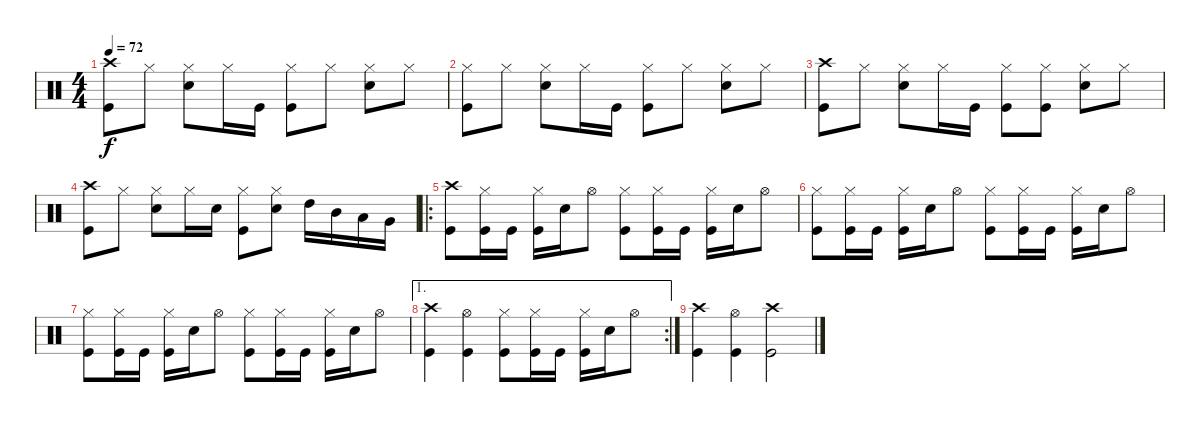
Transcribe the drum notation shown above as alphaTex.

\track "" {instrument percussion}
\staff {score}
\articulation defaults
\ts (4 4)
\tempo 72
\clef neutral
\ks c
("Kick (hit)" "Crash high (hit)").8{dy f} "Hi-Hat (closed)".8 ("Electric Snare (hit)" "Hi-Hat (closed)").8 "Hi-Hat (closed)".16 "Kick (hit)".16 ("Kick (hit)" "Hi-Hat (closed)").8 "Hi-Hat (closed)".8 ("Snare (hit) 2" "Hi-Hat (closed)").8 "Hi-Hat (closed)".8 |
("Kick (hit)" "Hi-Hat (closed)").8 "Hi-Hat (closed)".8 ("Electric Snare (hit)" "Hi-Hat (closed)").8 "Hi-Hat (closed)".16 "Kick (hit)".16 ("Kick (hit)" "Hi-Hat (closed)").8 "Hi-Hat (closed)".8 ("Snare (hit) 2" "Hi-Hat (closed)").8 "Hi-Hat (closed)".8 |
("Kick (hit)" "Crash high (hit)").8 "Hi-Hat (closed)".8 ("Electric Snare (hit)" "Hi-Hat (closed)").8 "Hi-Hat (closed)".16 "Kick (hit)".16 ("Kick (hit)" "Hi-Hat (closed)").8 ("Hi-Hat (closed)" "Kick (hit)").8 ("Snare (hit) 2" "Hi-Hat (closed)").8 "Hi-Hat (closed)".8 |
("Kick (hit)" "Crash high (hit)").8 "Hi-Hat (closed)".8 ("Electric Snare (hit)" "Hi-Hat (closed)").8 "Hi-Hat (closed)".16 "Snare (hit) 2".16 ("Kick (hit)" "Hi-Hat (closed)").8 ("Hi-Hat (closed)" "Snare (hit) 2").8 "High Tom (hit)".16 "Mid Tom (hit)".16 "Low Tom (hit)".16 "Very Low Tom (hit)".16 |
\ro
("Kick (hit)" "Crash high (hit)").8 ("Kick (hit)" "Hi-Hat (closed)").16 "Kick (hit)".16 ("Kick (hit)" "Hi-Hat (closed)").16 "Snare (hit) 2".16 "Hi-Hat (open)".8 ("Kick (hit)" "Hi-Hat (closed)").8 ("Kick (hit)" "Hi-Hat (closed)").16 "Kick (hit)".16 ("Kick (hit)" "Hi-Hat (closed)").16 "Snare (hit) 2".16 "Hi-Hat (open)".8 |
("Kick (hit)" "Hi-Hat (closed)").8 ("Kick (hit)" "Hi-Hat (closed)").16 "Kick (hit)".16 ("Kick (hit)" "Hi-Hat (closed)").16 "Snare (hit) 2".16 "Hi-Hat (open)".8 ("Kick (hit)" "Hi-Hat (closed)").8 ("Kick (hit)" "Hi-Hat (closed)").16 "Kick (hit)".16 ("Kick (hit)" "Hi-Hat (closed)").16 "Snare (hit) 2".16 "Hi-Hat (open)".8 |
("Kick (hit)" "Hi-Hat (closed)").8 ("Kick (hit)" "Hi-Hat (closed)").16{txt ""} "Kick (hit)".16 ("Kick (hit)" "Hi-Hat (closed)").16 "Snare (hit) 2".16 "Hi-Hat (open)".8 ("Kick (hit)" "Hi-Hat (closed)").8 ("Kick (hit)" "Hi-Hat (closed)").16 "Kick (hit)".16 ("Kick (hit)" "Hi-Hat (closed)").16 "Snare (hit) 2".16 "Hi-Hat (open)".8 |
\ae 1
\rc 2
("Kick (hit)" "Crash high (hit)").4 ("Hi-Hat (open)" "Kick (hit)").4 ("Kick (hit)" "Hi-Hat (closed)").8 ("Kick (hit)" "Hi-Hat (closed)").16 "Kick (hit)".16 ("Kick (hit)" "Hi-Hat (closed)").16 "Snare (hit) 2".16 "Hi-Hat (open)".8 |
("Kick (hit)" "Crash high (hit)").4 ("Hi-Hat (open)" "Kick (hit)").4 ("Kick (hit)" "Crash high (hit)").2
